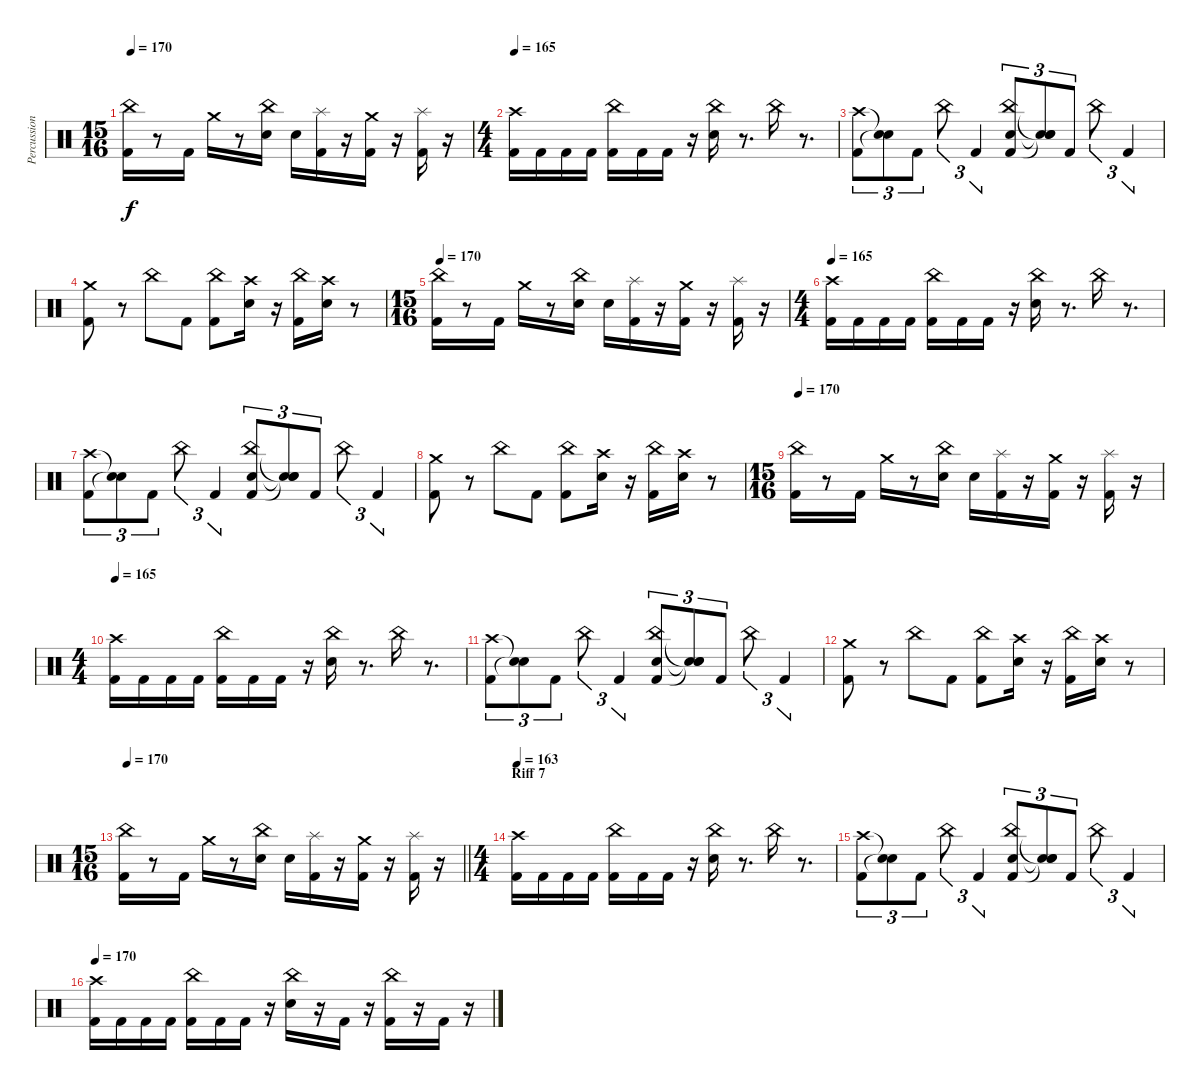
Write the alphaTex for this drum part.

\track ("Percussion" "Percussion") {instrument percussion}
\staff {score}
\articulation defaults
\ts (15 16)
\tempo 170
\clef neutral
\ks c
("Kick (hit) 2" "China (hit)").16{dy f} r.8 "Kick (hit) 2".16 "Crash medium (hit)".16 r.8 ("Snare (hit) 2" "China (hit)").16 "Snare (hit) 2".16 ("Kick (hit) 2" "Splash (hit)").16 r.16 ("Kick (hit) 2" "Crash medium (hit)").16 r.16 ("Kick (hit) 2" "Splash (hit)").16 r.16 |
\ts (4 4)
\tempo 165
("Kick (hit) 2" "Crash high (hit)").16 "Kick (hit) 2".16 "Kick (hit) 2".16 "Kick (hit) 2".16 ("Kick (hit) 2" "China (hit)").16 "Kick (hit) 2".16 "Kick (hit) 2".16 r.16 ("Snare (hit) 2" "China (hit)").16 r.8{d} "China (hit)".16 r.8{d} |
("Kick (hit) 2" "Crash high (hit)").8{tu (3 2)} ("Snare (hit)"{t} "Snare (hit)"{t}).8{tu (3 2)} "Kick (hit) 2".8{tu (3 2)} "China (hit)".8{tu (3 2)} "Kick (hit) 2".4{tu (3 2)} ("Kick (hit) 2" "Snare (hit) 2" "China (hit)").8{tu (3 2)} ("Snare (hit)"{t} "Snare (hit)"{t} "Snare (hit)"{t}).8{tu (3 2)} "Kick (hit) 2".8{tu (3 2)} "China (hit)".8{tu (3 2)} "Kick (hit) 2".4{tu (3 2)} |
("Kick (hit) 2" "Crash medium (hit)").8 r.8 "China (hit)".8 "Kick (hit) 2".8 ("Kick (hit) 2" "China (hit)").8 ("Snare (hit) 2" "Crash high (hit)").16 r.16 ("Kick (hit) 2" "China (hit)").16 ("Snare (hit) 2" "Crash high (hit)").16 r.8 |
\ts (15 16)
\tempo 170
("Kick (hit) 2" "China (hit)").16 r.8 "Kick (hit) 2".16 "Crash medium (hit)".16 r.8 ("Snare (hit) 2" "China (hit)").16 "Snare (hit) 2".16 ("Kick (hit) 2" "Splash (hit)").16 r.16 ("Kick (hit) 2" "Crash medium (hit)").16 r.16 ("Kick (hit) 2" "Splash (hit)").16 r.16 |
\ts (4 4)
\tempo 165
("Kick (hit) 2" "Crash high (hit)").16 "Kick (hit) 2".16 "Kick (hit) 2".16 "Kick (hit) 2".16 ("Kick (hit) 2" "China (hit)").16 "Kick (hit) 2".16 "Kick (hit) 2".16 r.16 ("Snare (hit) 2" "China (hit)").16 r.8{d} "China (hit)".16 r.8{d} |
("Kick (hit) 2" "Crash high (hit)").8{tu (3 2)} ("Snare (hit)"{t} "Snare (hit)"{t}).8{tu (3 2)} "Kick (hit) 2".8{tu (3 2)} "China (hit)".8{tu (3 2)} "Kick (hit) 2".4{tu (3 2)} ("Kick (hit) 2" "Snare (hit) 2" "China (hit)").8{tu (3 2)} ("Snare (hit)"{t} "Snare (hit)"{t} "Snare (hit)"{t}).8{tu (3 2)} "Kick (hit) 2".8{tu (3 2)} "China (hit)".8{tu (3 2)} "Kick (hit) 2".4{tu (3 2)} |
("Kick (hit) 2" "Crash medium (hit)").8 r.8 "China (hit)".8 "Kick (hit) 2".8 ("Kick (hit) 2" "China (hit)").8 ("Snare (hit) 2" "Crash high (hit)").16 r.16 ("Kick (hit) 2" "China (hit)").16 ("Snare (hit) 2" "Crash high (hit)").16 r.8 |
\ts (15 16)
\tempo 170
("Kick (hit) 2" "China (hit)").16 r.8 "Kick (hit) 2".16 "Crash medium (hit)".16 r.8 ("Snare (hit) 2" "China (hit)").16 "Snare (hit) 2".16 ("Kick (hit) 2" "Splash (hit)").16 r.16 ("Kick (hit) 2" "Crash medium (hit)").16 r.16 ("Kick (hit) 2" "Splash (hit)").16 r.16 |
\ts (4 4)
\tempo 165
("Kick (hit) 2" "Crash high (hit)").16 "Kick (hit) 2".16 "Kick (hit) 2".16 "Kick (hit) 2".16 ("Kick (hit) 2" "China (hit)").16 "Kick (hit) 2".16 "Kick (hit) 2".16 r.16 ("Snare (hit) 2" "China (hit)").16 r.8{d} "China (hit)".16 r.8{d} |
("Kick (hit) 2" "Crash high (hit)").8{tu (3 2)} ("Snare (hit)"{t} "Snare (hit)"{t}).8{tu (3 2)} "Kick (hit) 2".8{tu (3 2)} "China (hit)".8{tu (3 2)} "Kick (hit) 2".4{tu (3 2)} ("Kick (hit) 2" "Snare (hit) 2" "China (hit)").8{tu (3 2)} ("Snare (hit)"{t} "Snare (hit)"{t} "Snare (hit)"{t}).8{tu (3 2)} "Kick (hit) 2".8{tu (3 2)} "China (hit)".8{tu (3 2)} "Kick (hit) 2".4{tu (3 2)} |
("Kick (hit) 2" "Crash medium (hit)").8 r.8 "China (hit)".8 "Kick (hit) 2".8 ("Kick (hit) 2" "China (hit)").8 ("Snare (hit) 2" "Crash high (hit)").16 r.16 ("Kick (hit) 2" "China (hit)").16 ("Snare (hit) 2" "Crash high (hit)").16 r.8 |
\ts (15 16)
\tempo 170
\barLineRight lightlight
("Kick (hit) 2" "China (hit)").16 r.8 "Kick (hit) 2".16 "Crash medium (hit)".16 r.8 ("Snare (hit) 2" "China (hit)").16 "Snare (hit) 2".16 ("Kick (hit) 2" "Splash (hit)").16 r.16 ("Kick (hit) 2" "Crash medium (hit)").16 r.16 ("Kick (hit) 2" "Splash (hit)").16 r.16 |
\ts (4 4)
\section ("" "Riff 7")
\tempo 163
("Kick (hit) 2" "Crash high (hit)").16 "Kick (hit) 2".16 "Kick (hit) 2".16 "Kick (hit) 2".16 ("Kick (hit) 2" "China (hit)").16 "Kick (hit) 2".16 "Kick (hit) 2".16 r.16 ("Snare (hit) 2" "China (hit)").16 r.8{d} "China (hit)".16 r.8{d} |
("Kick (hit) 2" "Crash high (hit)").8{tu (3 2)} ("Snare (hit)"{t} "Snare (hit)"{t}).8{tu (3 2)} "Kick (hit) 2".8{tu (3 2)} "China (hit)".8{tu (3 2)} "Kick (hit) 2".4{tu (3 2)} ("Kick (hit) 2" "Snare (hit) 2" "China (hit)").8{tu (3 2)} ("Snare (hit)"{t} "Snare (hit)"{t} "Snare (hit)"{t}).8{tu (3 2)} "Kick (hit) 2".8{tu (3 2)} "China (hit)".8{tu (3 2)} "Kick (hit) 2".4{tu (3 2)} |
\tempo 170
("Kick (hit) 2" "Crash high (hit)").16 "Kick (hit) 2".16 "Kick (hit) 2".16 "Kick (hit) 2".16 ("Kick (hit) 2" "China (hit)").16 "Kick (hit) 2".16 "Kick (hit) 2".16 r.16 ("Snare (hit) 2" "China (hit)").16 r.16 "Kick (hit) 2".16 r.16 ("Kick (hit) 2" "China (hit)").16 r.16 "Kick (hit) 2".16 r.16
